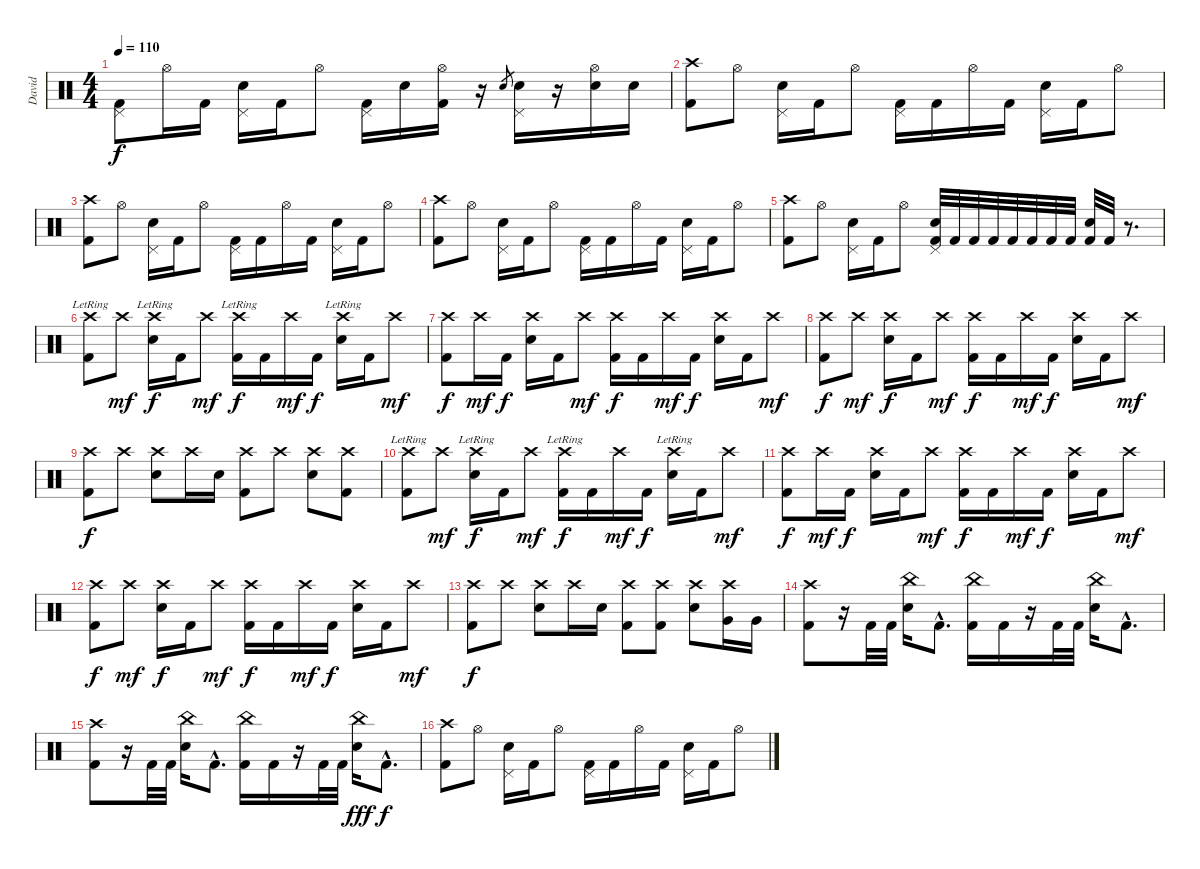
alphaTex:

\track ("David" "David") {instrument percussion}
\staff {score}
\articulation defaults
\ts (4 4)
\tempo 110
\clef neutral
\ks c
("Pedal Hi-Hat (hit)" "Kick (hit) 2").8{dy f} "Hi-Hat (open)".16 "Kick (hit) 2".16 ("Pedal Hi-Hat (hit)" "Electric Snare (hit)").16 "Kick (hit) 2".16 "Hi-Hat (open)".8 ("Pedal Hi-Hat (hit)" "Kick (hit) 2").16 "Electric Snare (hit)".16 ("Hi-Hat (open)" "Kick (hit) 2").16 r.16 "Electric Snare (hit)".8{gr} ("Pedal Hi-Hat (hit)" "Electric Snare (hit)").16 r.16 ("Hi-Hat (open)" "Electric Snare (hit)").16 "Electric Snare (hit)".16 |
("Crash high (hit)" "Kick (hit) 2").8 "Hi-Hat (open)".8 ("Pedal Hi-Hat (hit)" "Electric Snare (hit)").16 "Kick (hit) 2".16 "Hi-Hat (open)".8 ("Pedal Hi-Hat (hit)" "Kick (hit) 2").16 "Kick (hit) 2".16 "Hi-Hat (open)".16 "Kick (hit) 2".16 ("Pedal Hi-Hat (hit)" "Electric Snare (hit)").16 "Kick (hit) 2".16 "Hi-Hat (open)".8 |
("Crash high (hit)" "Kick (hit) 2").8 "Hi-Hat (open)".8 ("Pedal Hi-Hat (hit)" "Electric Snare (hit)").16 "Kick (hit) 2".16 "Hi-Hat (open)".8 ("Pedal Hi-Hat (hit)" "Kick (hit) 2").16 "Kick (hit) 2".16 "Hi-Hat (open)".16 "Kick (hit) 2".16 ("Pedal Hi-Hat (hit)" "Electric Snare (hit)").16 "Kick (hit) 2".16 "Hi-Hat (open)".8 |
("Crash high (hit)" "Kick (hit) 2").8 "Hi-Hat (open)".8 ("Pedal Hi-Hat (hit)" "Electric Snare (hit)").16 "Kick (hit) 2".16 "Hi-Hat (open)".8 ("Pedal Hi-Hat (hit)" "Kick (hit) 2").16 "Kick (hit) 2".16 "Hi-Hat (open)".16 "Kick (hit) 2".16 ("Pedal Hi-Hat (hit)" "Electric Snare (hit)").16 "Kick (hit) 2".16 "Hi-Hat (open)".8 |
("Crash high (hit)" "Kick (hit) 2").8 "Hi-Hat (open)".8 ("Pedal Hi-Hat (hit)" "Electric Snare (hit)").16 "Kick (hit) 2".16 "Hi-Hat (open)".8 ("Pedal Hi-Hat (hit)" "Electric Snare (hit)" "Kick (hit) 2").32 "Kick (hit) 2".32 "Kick (hit) 2".32 "Kick (hit) 2".32 "Kick (hit) 2".32 "Kick (hit) 2".32 "Kick (hit) 2".32 "Kick (hit) 2".32 ("Electric Snare (hit)" "Kick (hit) 2").32 "Kick (hit) 2".32 r.8{d} |
("Crash high (hit)"{lr} "Kick (hit) 2").8 "Crash high (hit)".8{dy mf} ("Crash high (hit)"{lr} "Electric Snare (hit)").16{dy f} "Kick (hit) 2".16 "Crash high (hit)".8{dy mf} ("Crash high (hit)"{lr} "Kick (hit) 2").16{dy f} "Kick (hit) 2".16 "Crash high (hit)".16{dy mf} "Kick (hit) 2".16{dy f} ("Crash high (hit)"{lr} "Electric Snare (hit)").16 "Kick (hit) 2".16 "Crash high (hit)".8{dy mf} |
("Crash high (hit)" "Kick (hit) 2").8{dy f} "Crash high (hit)".16{dy mf} "Kick (hit) 2".16{dy f} ("Crash high (hit)" "Electric Snare (hit)").16 "Kick (hit) 2".16 "Crash high (hit)".8{dy mf} ("Crash high (hit)" "Kick (hit) 2").16{dy f} "Kick (hit) 2".16 "Crash high (hit)".16{dy mf} "Kick (hit) 2".16{dy f} ("Crash high (hit)" "Electric Snare (hit)").16 "Kick (hit) 2".16 "Crash high (hit)".8{dy mf} |
("Crash high (hit)" "Kick (hit) 2").8{dy f} "Crash high (hit)".8{dy mf} ("Crash high (hit)" "Electric Snare (hit)").16{dy f} "Kick (hit) 2".16 "Crash high (hit)".8{dy mf} ("Crash high (hit)" "Kick (hit) 2").16{dy f} "Kick (hit) 2".16 "Crash high (hit)".16{dy mf} "Kick (hit) 2".16{dy f} ("Crash high (hit)" "Electric Snare (hit)").16 "Kick (hit) 2".16 "Crash high (hit)".8{dy mf} |
("Crash high (hit)" "Kick (hit) 2").8{dy f} "Crash high (hit)".8 ("Crash high (hit)" "Electric Snare (hit)").8 "Crash high (hit)".16 "Electric Snare (hit)".16 ("Crash high (hit)" "Kick (hit) 2").8 "Crash high (hit)".8 ("Crash high (hit)" "Electric Snare (hit)").8 ("Crash high (hit)" "Kick (hit) 2").8 |
("Crash high (hit)"{lr} "Kick (hit) 2").8 "Crash high (hit)".8{dy mf} ("Crash high (hit)"{lr} "Electric Snare (hit)").16{dy f} "Kick (hit) 2".16 "Crash high (hit)".8{dy mf} ("Crash high (hit)"{lr} "Kick (hit) 2").16{dy f} "Kick (hit) 2".16 "Crash high (hit)".16{dy mf} "Kick (hit) 2".16{dy f} ("Crash high (hit)"{lr} "Electric Snare (hit)").16 "Kick (hit) 2".16 "Crash high (hit)".8{dy mf} |
("Crash high (hit)" "Kick (hit) 2").8{dy f} "Crash high (hit)".16{dy mf} "Kick (hit) 2".16{dy f} ("Crash high (hit)" "Electric Snare (hit)").16 "Kick (hit) 2".16 "Crash high (hit)".8{dy mf} ("Crash high (hit)" "Kick (hit) 2").16{dy f} "Kick (hit) 2".16 "Crash high (hit)".16{dy mf} "Kick (hit) 2".16{dy f} ("Crash high (hit)" "Electric Snare (hit)").16 "Kick (hit) 2".16 "Crash high (hit)".8{dy mf} |
("Crash high (hit)" "Kick (hit) 2").8{dy f} "Crash high (hit)".8{dy mf} ("Crash high (hit)" "Electric Snare (hit)").16{dy f} "Kick (hit) 2".16 "Crash high (hit)".8{dy mf} ("Crash high (hit)" "Kick (hit) 2").16{dy f} "Kick (hit) 2".16 "Crash high (hit)".16{dy mf} "Kick (hit) 2".16{dy f} ("Crash high (hit)" "Electric Snare (hit)").16 "Kick (hit) 2".16 "Crash high (hit)".8{dy mf} |
("Crash high (hit)" "Kick (hit) 2").8{dy f} "Crash high (hit)".8 ("Crash high (hit)" "Electric Snare (hit)").8 "Crash high (hit)".16 "Electric Snare (hit)".16 ("Crash high (hit)" "Kick (hit) 2").8 ("Crash high (hit)" "Kick (hit) 2").8 ("Crash high (hit)" "Electric Snare (hit)").8 ("Crash high (hit)" "Very Low Tom (hit)").16 "Very Low Tom (hit)".16 |
("Crash high (hit)" "Kick (hit) 2").8 r.16 "Kick (hit) 2".32 "Kick (hit) 2".32 ("China (hit)" "Electric Snare (hit)").16 "Kick (hit) 2"{hac}.8{d} ("China (hit)" "Kick (hit) 2").16 "Kick (hit) 2".16 r.16 "Kick (hit) 2".32 "Kick (hit) 2".32 ("China (hit)" "Electric Snare (hit)").16 "Kick (hit) 2"{hac}.8{d} |
("Crash high (hit)" "Kick (hit) 2").8 r.16 "Kick (hit) 2".32 "Kick (hit) 2".32 ("China (hit)" "Electric Snare (hit)").16 "Kick (hit) 2"{hac}.8{d} ("China (hit)" "Kick (hit) 2").16 "Kick (hit) 2".16 r.16 "Kick (hit) 2".32 "Kick (hit) 2".32 ("China (hit)" "Electric Snare (hit)").16{dy fff} "Kick (hit) 2"{hac}.8{d dy f} |
("Crash high (hit)" "Kick (hit) 2").8 "Hi-Hat (open)".8 ("Pedal Hi-Hat (hit)" "Electric Snare (hit)").16 "Kick (hit) 2".16 "Hi-Hat (open)".8 ("Pedal Hi-Hat (hit)" "Kick (hit) 2").16 "Kick (hit) 2".16 "Hi-Hat (open)".16 "Kick (hit) 2".16 ("Pedal Hi-Hat (hit)" "Electric Snare (hit)").16 "Kick (hit) 2".16 "Hi-Hat (open)".8
